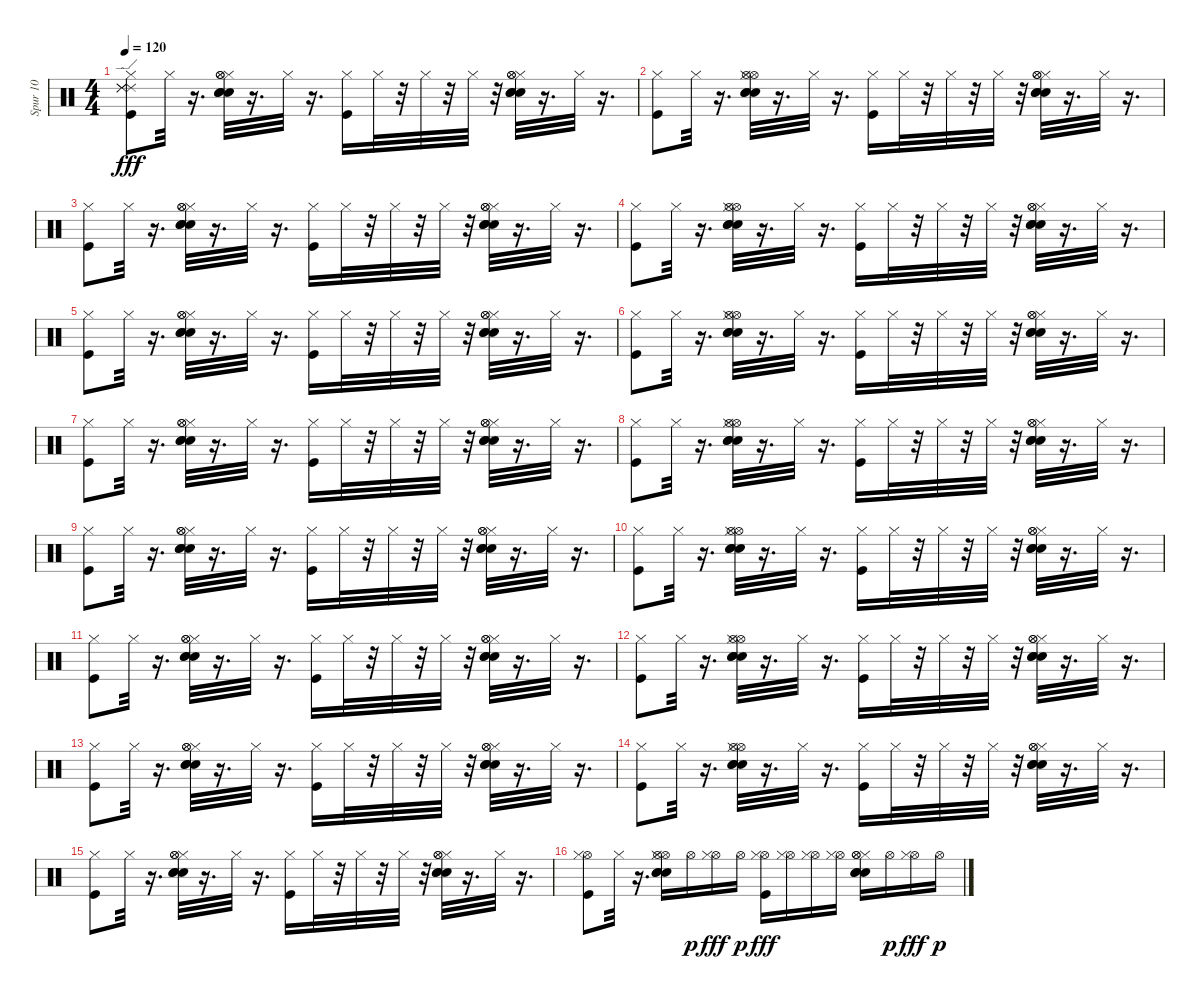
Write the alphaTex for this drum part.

\track ("Spur 10" "Spur 10") {instrument percussion}
\staff {score}
\articulation defaults
\ts (4 4)
\tempo 120
\clef neutral
\ks c
("Ride (edge) 2" "Ride (edge) 2" "Ride (edge) 2" "Kick (hit)" "Hi-Hat (closed)").8{dy fff} "Hi-Hat (closed)".32 r.16{d} ("Snare (hit) 2" "Snare (hit) 2" "Hi-Hat (closed)" "Snare (hit) 2" "Hi-Hat (open)" "Hi-Hat (open)").32 r.16{d} "Hi-Hat (closed)".32 r.16{d} ("Hi-Hat (closed)" "Kick (hit)").16 "Hi-Hat (closed)".32 r.32 "Hi-Hat (closed)".32 r.32 "Hi-Hat (closed)".32 r.32 ("Hi-Hat (closed)" "Snare (hit) 2" "Hi-Hat (open)" "Hi-Hat (open)" "Snare (hit) 2" "Snare (hit) 2").32 r.16{d} "Hi-Hat (closed)".32 r.16{d} |
("Hi-Hat (closed)" "Kick (hit)").8 "Hi-Hat (closed)".32 r.16{d} ("Hi-Hat (open)" "Hi-Hat (closed)" "Snare (hit) 2" "Hi-Hat (open)" "Snare (hit) 2" "Snare (hit) 2").32 r.16{d} "Hi-Hat (closed)".32 r.16{d} ("Kick (hit)" "Hi-Hat (closed)").16 "Hi-Hat (closed)".32 r.32 "Hi-Hat (closed)".32 r.32 "Hi-Hat (closed)".32 r.32 ("Snare (hit) 2" "Hi-Hat (closed)" "Hi-Hat (open)" "Snare (hit) 2" "Hi-Hat (open)" "Snare (hit) 2").32 r.16{d} "Hi-Hat (closed)".32 r.16{d} |
("Kick (hit)" "Hi-Hat (closed)").8 "Hi-Hat (closed)".32 r.16{d} ("Snare (hit) 2" "Snare (hit) 2" "Hi-Hat (closed)" "Snare (hit) 2" "Hi-Hat (open)" "Hi-Hat (open)").32 r.16{d} "Hi-Hat (closed)".32 r.16{d} ("Hi-Hat (closed)" "Kick (hit)").16 "Hi-Hat (closed)".32 r.32 "Hi-Hat (closed)".32 r.32 "Hi-Hat (closed)".32 r.32 ("Hi-Hat (closed)" "Snare (hit) 2" "Hi-Hat (open)" "Hi-Hat (open)" "Snare (hit) 2" "Snare (hit) 2").32 r.16{d} "Hi-Hat (closed)".32 r.16{d} |
("Hi-Hat (closed)" "Kick (hit)").8 "Hi-Hat (closed)".32 r.16{d} ("Hi-Hat (open)" "Hi-Hat (closed)" "Snare (hit) 2" "Hi-Hat (open)" "Snare (hit) 2" "Snare (hit) 2").32 r.16{d} "Hi-Hat (closed)".32 r.16{d} ("Kick (hit)" "Hi-Hat (closed)").16 "Hi-Hat (closed)".32 r.32 "Hi-Hat (closed)".32 r.32 "Hi-Hat (closed)".32 r.32 ("Snare (hit) 2" "Hi-Hat (closed)" "Hi-Hat (open)" "Snare (hit) 2" "Hi-Hat (open)" "Snare (hit) 2").32 r.16{d} "Hi-Hat (closed)".32 r.16{d} |
("Kick (hit)" "Hi-Hat (closed)").8 "Hi-Hat (closed)".32 r.16{d} ("Snare (hit) 2" "Snare (hit) 2" "Hi-Hat (closed)" "Snare (hit) 2" "Hi-Hat (open)" "Hi-Hat (open)").32 r.16{d} "Hi-Hat (closed)".32 r.16{d} ("Hi-Hat (closed)" "Kick (hit)").16 "Hi-Hat (closed)".32 r.32 "Hi-Hat (closed)".32 r.32 "Hi-Hat (closed)".32 r.32 ("Hi-Hat (closed)" "Snare (hit) 2" "Hi-Hat (open)" "Hi-Hat (open)" "Snare (hit) 2" "Snare (hit) 2").32 r.16{d} "Hi-Hat (closed)".32 r.16{d} |
("Hi-Hat (closed)" "Kick (hit)").8 "Hi-Hat (closed)".32 r.16{d} ("Hi-Hat (open)" "Hi-Hat (closed)" "Snare (hit) 2" "Hi-Hat (open)" "Snare (hit) 2" "Snare (hit) 2").32 r.16{d} "Hi-Hat (closed)".32 r.16{d} ("Kick (hit)" "Hi-Hat (closed)").16 "Hi-Hat (closed)".32 r.32 "Hi-Hat (closed)".32 r.32 "Hi-Hat (closed)".32 r.32 ("Snare (hit) 2" "Hi-Hat (closed)" "Hi-Hat (open)" "Snare (hit) 2" "Hi-Hat (open)" "Snare (hit) 2").32 r.16{d} "Hi-Hat (closed)".32 r.16{d} |
("Kick (hit)" "Hi-Hat (closed)").8 "Hi-Hat (closed)".32 r.16{d} ("Snare (hit) 2" "Snare (hit) 2" "Hi-Hat (closed)" "Snare (hit) 2" "Hi-Hat (open)" "Hi-Hat (open)").32 r.16{d} "Hi-Hat (closed)".32 r.16{d} ("Hi-Hat (closed)" "Kick (hit)").16 "Hi-Hat (closed)".32 r.32 "Hi-Hat (closed)".32 r.32 "Hi-Hat (closed)".32 r.32 ("Hi-Hat (closed)" "Snare (hit) 2" "Hi-Hat (open)" "Hi-Hat (open)" "Snare (hit) 2" "Snare (hit) 2").32 r.16{d} "Hi-Hat (closed)".32 r.16{d} |
("Hi-Hat (closed)" "Kick (hit)").8 "Hi-Hat (closed)".32 r.16{d} ("Hi-Hat (open)" "Hi-Hat (closed)" "Snare (hit) 2" "Hi-Hat (open)" "Snare (hit) 2" "Snare (hit) 2").32 r.16{d} "Hi-Hat (closed)".32 r.16{d} ("Kick (hit)" "Hi-Hat (closed)").16 "Hi-Hat (closed)".32 r.32 "Hi-Hat (closed)".32 r.32 "Hi-Hat (closed)".32 r.32 ("Snare (hit) 2" "Hi-Hat (closed)" "Hi-Hat (open)" "Snare (hit) 2" "Hi-Hat (open)" "Snare (hit) 2").32 r.16{d} "Hi-Hat (closed)".32 r.16{d} |
("Kick (hit)" "Hi-Hat (closed)").8 "Hi-Hat (closed)".32 r.16{d} ("Snare (hit) 2" "Snare (hit) 2" "Hi-Hat (closed)" "Snare (hit) 2" "Hi-Hat (open)" "Hi-Hat (open)").32 r.16{d} "Hi-Hat (closed)".32 r.16{d} ("Hi-Hat (closed)" "Kick (hit)").16 "Hi-Hat (closed)".32 r.32 "Hi-Hat (closed)".32 r.32 "Hi-Hat (closed)".32 r.32 ("Hi-Hat (closed)" "Snare (hit) 2" "Hi-Hat (open)" "Hi-Hat (open)" "Snare (hit) 2" "Snare (hit) 2").32 r.16{d} "Hi-Hat (closed)".32 r.16{d} |
("Hi-Hat (closed)" "Kick (hit)").8 "Hi-Hat (closed)".32 r.16{d} ("Hi-Hat (open)" "Hi-Hat (closed)" "Snare (hit) 2" "Hi-Hat (open)" "Snare (hit) 2" "Snare (hit) 2").32 r.16{d} "Hi-Hat (closed)".32 r.16{d} ("Kick (hit)" "Hi-Hat (closed)").16 "Hi-Hat (closed)".32 r.32 "Hi-Hat (closed)".32 r.32 "Hi-Hat (closed)".32 r.32 ("Snare (hit) 2" "Hi-Hat (closed)" "Hi-Hat (open)" "Snare (hit) 2" "Hi-Hat (open)" "Snare (hit) 2").32 r.16{d} "Hi-Hat (closed)".32 r.16{d} |
("Kick (hit)" "Hi-Hat (closed)").8 "Hi-Hat (closed)".32 r.16{d} ("Snare (hit) 2" "Snare (hit) 2" "Hi-Hat (closed)" "Snare (hit) 2" "Hi-Hat (open)" "Hi-Hat (open)").32 r.16{d} "Hi-Hat (closed)".32 r.16{d} ("Hi-Hat (closed)" "Kick (hit)").16 "Hi-Hat (closed)".32 r.32 "Hi-Hat (closed)".32 r.32 "Hi-Hat (closed)".32 r.32 ("Hi-Hat (closed)" "Snare (hit) 2" "Hi-Hat (open)" "Hi-Hat (open)" "Snare (hit) 2" "Snare (hit) 2").32 r.16{d} "Hi-Hat (closed)".32 r.16{d} |
("Hi-Hat (closed)" "Kick (hit)").8 "Hi-Hat (closed)".32 r.16{d} ("Hi-Hat (open)" "Hi-Hat (closed)" "Snare (hit) 2" "Hi-Hat (open)" "Snare (hit) 2" "Snare (hit) 2").32 r.16{d} "Hi-Hat (closed)".32 r.16{d} ("Kick (hit)" "Hi-Hat (closed)").16 "Hi-Hat (closed)".32 r.32 "Hi-Hat (closed)".32 r.32 "Hi-Hat (closed)".32 r.32 ("Snare (hit) 2" "Hi-Hat (closed)" "Hi-Hat (open)" "Snare (hit) 2" "Hi-Hat (open)" "Snare (hit) 2").32 r.16{d} "Hi-Hat (closed)".32 r.16{d} |
("Kick (hit)" "Hi-Hat (closed)").8 "Hi-Hat (closed)".32 r.16{d} ("Snare (hit) 2" "Snare (hit) 2" "Hi-Hat (closed)" "Snare (hit) 2" "Hi-Hat (open)" "Hi-Hat (open)").32 r.16{d} "Hi-Hat (closed)".32 r.16{d} ("Hi-Hat (closed)" "Kick (hit)").16 "Hi-Hat (closed)".32 r.32 "Hi-Hat (closed)".32 r.32 "Hi-Hat (closed)".32 r.32 ("Hi-Hat (closed)" "Snare (hit) 2" "Hi-Hat (open)" "Hi-Hat (open)" "Snare (hit) 2" "Snare (hit) 2").32 r.16{d} "Hi-Hat (closed)".32 r.16{d} |
("Hi-Hat (closed)" "Kick (hit)").8 "Hi-Hat (closed)".32 r.16{d} ("Hi-Hat (open)" "Hi-Hat (closed)" "Snare (hit) 2" "Hi-Hat (open)" "Snare (hit) 2" "Snare (hit) 2").32 r.16{d} "Hi-Hat (closed)".32 r.16{d} ("Kick (hit)" "Hi-Hat (closed)").16 "Hi-Hat (closed)".32 r.32 "Hi-Hat (closed)".32 r.32 "Hi-Hat (closed)".32 r.32 ("Snare (hit) 2" "Hi-Hat (closed)" "Hi-Hat (open)" "Snare (hit) 2" "Hi-Hat (open)" "Snare (hit) 2").32 r.16{d} "Hi-Hat (closed)".32 r.16{d} |
("Kick (hit)" "Hi-Hat (closed)").8 "Hi-Hat (closed)".32 r.16{d} ("Snare (hit) 2" "Snare (hit) 2" "Hi-Hat (closed)" "Snare (hit) 2" "Hi-Hat (open)" "Hi-Hat (open)").32 r.16{d} "Hi-Hat (closed)".32 r.16{d} ("Hi-Hat (closed)" "Kick (hit)").16 "Hi-Hat (closed)".32 r.32 "Hi-Hat (closed)".32 r.32 "Hi-Hat (closed)".32 r.32 ("Hi-Hat (closed)" "Snare (hit) 2" "Hi-Hat (open)" "Hi-Hat (open)" "Snare (hit) 2" "Snare (hit) 2").32 r.16{d} "Hi-Hat (closed)".32 r.16{d} |
("Hi-Hat (open)" "Hi-Hat (closed)" "Kick (hit)").8 "Hi-Hat (closed)".32 r.16{d} ("Hi-Hat (open)" "Hi-Hat (closed)" "Snare (hit) 2" "Hi-Hat (open)" "Snare (hit) 2" "Snare (hit) 2").16 "Hi-Hat (open)".16{dy p} ("Hi-Hat (open)" "Hi-Hat (closed)").16{dy fff} "Hi-Hat (open)".16{dy p} ("Hi-Hat (open)" "Kick (hit)" "Hi-Hat (closed)").16{dy fff} ("Hi-Hat (open)" "Hi-Hat (closed)").16 ("Hi-Hat (open)" "Hi-Hat (closed)").16 ("Hi-Hat (open)" "Hi-Hat (closed)").16 ("Snare (hit) 2" "Hi-Hat (closed)" "Hi-Hat (open)" "Snare (hit) 2" "Hi-Hat (open)" "Snare (hit) 2").16 "Hi-Hat (open)".16{dy p} ("Hi-Hat (open)" "Hi-Hat (closed)").16{dy fff} "Hi-Hat (open)".16{dy p}
